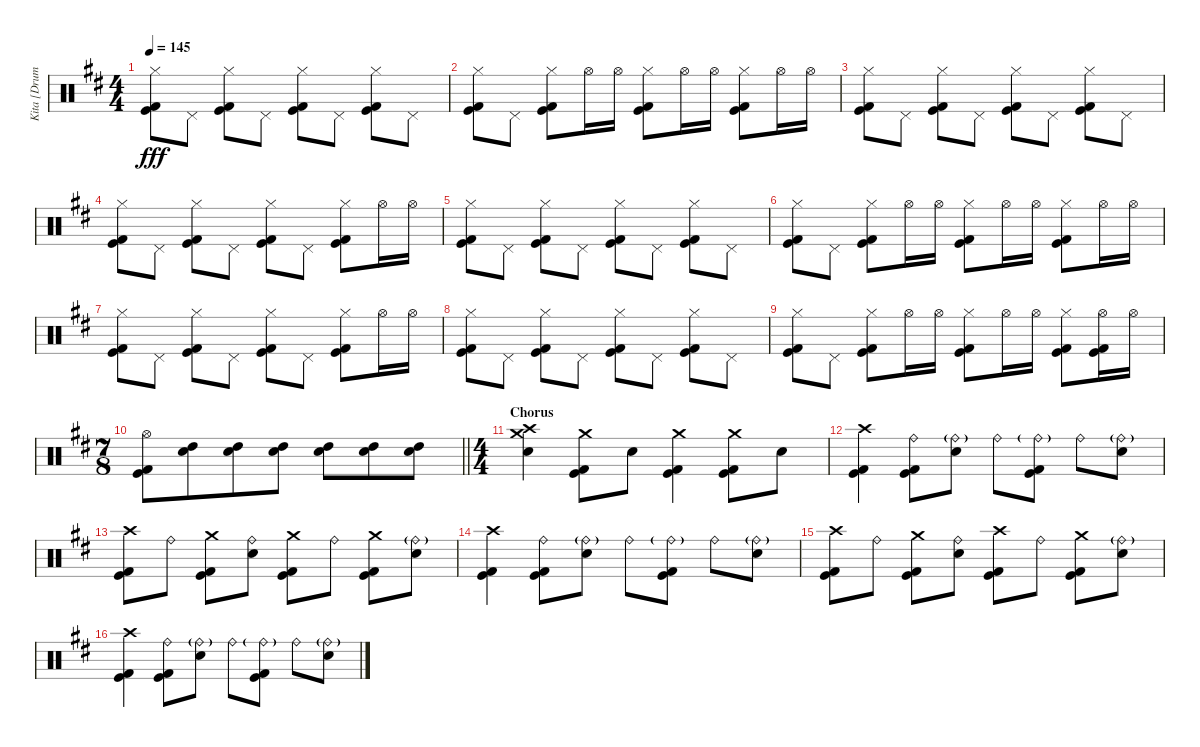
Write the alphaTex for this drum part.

\track ("Kita [Drums]" "Kita [Drum") {instrument percussion}
\staff {score}
\articulation defaults
\ts (4 4)
\tempo 145
\clef neutral
\ks d
("Hi-Hat (closed)" "Kick (hit)" "Kick (hit) 2").8{dy fff} "Pedal Hi-Hat (hit)".8 ("Hi-Hat (closed)" "Kick (hit)" "Kick (hit) 2").8 "Pedal Hi-Hat (hit)".8 ("Hi-Hat (closed)" "Kick (hit)" "Kick (hit) 2").8 "Pedal Hi-Hat (hit)".8 ("Hi-Hat (closed)" "Kick (hit)" "Kick (hit) 2").8 "Pedal Hi-Hat (hit)".8 |
("Hi-Hat (closed)" "Kick (hit)" "Kick (hit) 2").8 "Pedal Hi-Hat (hit)".8 ("Hi-Hat (closed)" "Kick (hit)" "Kick (hit) 2").8 "Hi-Hat (open)".16 "Hi-Hat (open)".16 ("Hi-Hat (closed)" "Kick (hit)" "Kick (hit) 2").8 "Hi-Hat (open)".16 "Hi-Hat (open)".16 ("Hi-Hat (closed)" "Kick (hit)" "Kick (hit) 2").8 "Hi-Hat (open)".16 "Hi-Hat (open)".16 |
("Hi-Hat (closed)" "Kick (hit)" "Kick (hit) 2").8 "Pedal Hi-Hat (hit)".8 ("Hi-Hat (closed)" "Kick (hit)" "Kick (hit) 2").8 "Pedal Hi-Hat (hit)".8 ("Hi-Hat (closed)" "Kick (hit)" "Kick (hit) 2").8 "Pedal Hi-Hat (hit)".8 ("Hi-Hat (closed)" "Kick (hit)" "Kick (hit) 2").8 "Pedal Hi-Hat (hit)".8 |
("Hi-Hat (closed)" "Kick (hit)" "Kick (hit) 2").8 "Pedal Hi-Hat (hit)".8 ("Hi-Hat (closed)" "Kick (hit)" "Kick (hit) 2").8 "Pedal Hi-Hat (hit)".8 ("Hi-Hat (closed)" "Kick (hit)" "Kick (hit) 2").8 "Pedal Hi-Hat (hit)".8 ("Hi-Hat (closed)" "Kick (hit)" "Kick (hit) 2").8 "Hi-Hat (open)".16 "Hi-Hat (open)".16 |
("Hi-Hat (closed)" "Kick (hit)" "Kick (hit) 2").8 "Pedal Hi-Hat (hit)".8 ("Hi-Hat (closed)" "Kick (hit)" "Kick (hit) 2").8 "Pedal Hi-Hat (hit)".8 ("Hi-Hat (closed)" "Kick (hit)" "Kick (hit) 2").8 "Pedal Hi-Hat (hit)".8 ("Hi-Hat (closed)" "Kick (hit)" "Kick (hit) 2").8 "Pedal Hi-Hat (hit)".8 |
("Hi-Hat (closed)" "Kick (hit)" "Kick (hit) 2").8 "Pedal Hi-Hat (hit)".8 ("Hi-Hat (closed)" "Kick (hit)" "Kick (hit) 2").8 "Hi-Hat (open)".16 "Hi-Hat (open)".16 ("Hi-Hat (closed)" "Kick (hit)" "Kick (hit) 2").8 "Hi-Hat (open)".16 "Hi-Hat (open)".16 ("Hi-Hat (closed)" "Kick (hit)" "Kick (hit) 2").8 "Hi-Hat (open)".16 "Hi-Hat (open)".16 |
("Hi-Hat (closed)" "Kick (hit)" "Kick (hit) 2").8 "Pedal Hi-Hat (hit)".8 ("Hi-Hat (closed)" "Kick (hit)" "Kick (hit) 2").8 "Pedal Hi-Hat (hit)".8 ("Hi-Hat (closed)" "Kick (hit)" "Kick (hit) 2").8 "Pedal Hi-Hat (hit)".8 ("Hi-Hat (closed)" "Kick (hit)" "Kick (hit) 2").8 "Hi-Hat (open)".16 "Hi-Hat (open)".16 |
("Hi-Hat (closed)" "Kick (hit)" "Kick (hit) 2").8 "Pedal Hi-Hat (hit)".8 ("Hi-Hat (closed)" "Kick (hit)" "Kick (hit) 2").8 "Pedal Hi-Hat (hit)".8 ("Hi-Hat (closed)" "Kick (hit)" "Kick (hit) 2").8 "Pedal Hi-Hat (hit)".8 ("Hi-Hat (closed)" "Kick (hit)" "Kick (hit) 2").8 "Pedal Hi-Hat (hit)".8 |
("Hi-Hat (closed)" "Kick (hit)" "Kick (hit) 2").8 "Pedal Hi-Hat (hit)".8 ("Hi-Hat (closed)" "Kick (hit)" "Kick (hit) 2").8 "Hi-Hat (open)".16 "Hi-Hat (open)".16 ("Hi-Hat (closed)" "Kick (hit)" "Kick (hit) 2").8 "Hi-Hat (open)".16 "Hi-Hat (open)".16 ("Hi-Hat (closed)" "Kick (hit)" "Kick (hit) 2").8 ("Hi-Hat (open)" "Kick (hit)" "Kick (hit) 2").16 "Hi-Hat (open)".16 |
\ts (7 8)
\barLineRight lightlight
("Hi-Hat (open)" "Kick (hit)" "Kick (hit) 2").8 ("High Tom (hit)" "Electric Snare (hit)").8 ("High Tom (hit)" "Electric Snare (hit)").8 ("High Tom (hit)" "Electric Snare (hit)").8 ("High Tom (hit)" "Electric Snare (hit)").8 ("High Tom (hit)" "Electric Snare (hit)").8 ("High Tom (hit)" "Electric Snare (hit)").8 |
\ts (4 4)
\section ("" "Chorus")
("Crash high (hit)" "Crash medium (hit)" "Electric Snare (hit)").4 ("Crash medium (hit)" "Kick (hit)" "Kick (hit) 2").8 "Electric Snare (hit)".8 ("Crash medium (hit)" "Kick (hit)" "Kick (hit) 2").4 ("Crash medium (hit)" "Kick (hit)" "Kick (hit) 2").8 "Electric Snare (hit)".8 |
("Crash high (hit)" "Kick (hit)" "Kick (hit) 2").4 ("Ride (bell)" "Kick (hit)" "Kick (hit) 2").8 ("Ride (bell)"{g} "Electric Snare (hit)").8 "Ride (bell)".8 ("Ride (bell)"{g} "Kick (hit)" "Kick (hit) 2").8 "Ride (bell)".8 ("Ride (bell)"{g} "Electric Snare (hit)").8 |
("Crash high (hit)" "Kick (hit)" "Kick (hit) 2").8 "Ride (bell)".8 ("Crash medium (hit)" "Kick (hit)" "Kick (hit) 2").8 ("Ride (bell)" "Electric Snare (hit)").8 ("Crash medium (hit)" "Kick (hit)" "Kick (hit) 2").8 "Ride (bell)".8 ("Crash medium (hit)" "Kick (hit)" "Kick (hit) 2").8 ("Ride (bell)"{g} "Electric Snare (hit)").8 |
("Crash high (hit)" "Kick (hit)" "Kick (hit) 2").4 ("Ride (bell)" "Kick (hit)" "Kick (hit) 2").8 ("Ride (bell)"{g} "Electric Snare (hit)").8 "Ride (bell)".8 ("Ride (bell)"{g} "Kick (hit)" "Kick (hit) 2").8 "Ride (bell)".8 ("Ride (bell)"{g} "Electric Snare (hit)").8 |
("Crash high (hit)" "Kick (hit)" "Kick (hit) 2").8 "Ride (bell)".8 ("Crash medium (hit)" "Kick (hit)" "Kick (hit) 2").8 ("Ride (bell)" "Electric Snare (hit)").8 ("Crash high (hit)" "Kick (hit)" "Kick (hit) 2").8 "Ride (bell)".8 ("Crash medium (hit)" "Kick (hit)" "Kick (hit) 2").8 ("Ride (bell)"{g} "Electric Snare (hit)").8 |
("Crash high (hit)" "Kick (hit)" "Kick (hit) 2").4 ("Ride (bell)" "Kick (hit)" "Kick (hit) 2").8 ("Ride (bell)"{g} "Electric Snare (hit)").8 "Ride (bell)".8 ("Ride (bell)"{g} "Kick (hit)" "Kick (hit) 2").8 "Ride (bell)".8 ("Ride (bell)"{g} "Electric Snare (hit)").8
